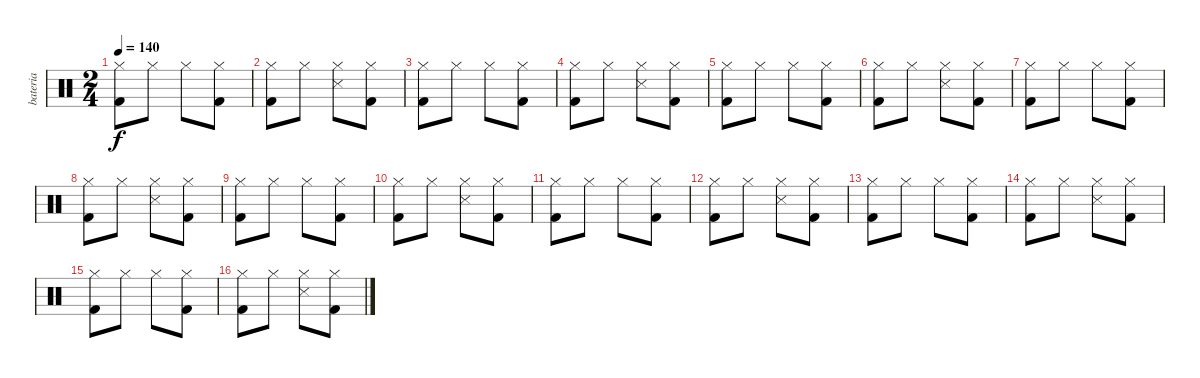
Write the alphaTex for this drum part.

\track ("bateria" "bateria") {instrument percussion}
\staff {score}
\articulation defaults
\ts (2 4)
\tempo 140
\clef neutral
\ks c
("Hi-Hat (closed)" "Kick (hit) 2").8{dy f} "Hi-Hat (closed)".8 "Hi-Hat (closed)".8 ("Hi-Hat (closed)" "Kick (hit) 2").8 |
("Hi-Hat (closed)" "Kick (hit) 2").8 "Hi-Hat (closed)".8 ("Hi-Hat (closed)" "Snare (side stick) 3").8 ("Hi-Hat (closed)" "Kick (hit) 2").8 |
("Hi-Hat (closed)" "Kick (hit) 2").8 "Hi-Hat (closed)".8 "Hi-Hat (closed)".8 ("Hi-Hat (closed)" "Kick (hit) 2").8 |
("Hi-Hat (closed)" "Kick (hit) 2").8 "Hi-Hat (closed)".8 ("Hi-Hat (closed)" "Snare (side stick) 3").8 ("Hi-Hat (closed)" "Kick (hit) 2").8 |
("Hi-Hat (closed)" "Kick (hit) 2").8 "Hi-Hat (closed)".8 "Hi-Hat (closed)".8 ("Hi-Hat (closed)" "Kick (hit) 2").8 |
("Hi-Hat (closed)" "Kick (hit) 2").8 "Hi-Hat (closed)".8 ("Hi-Hat (closed)" "Snare (side stick) 3").8 ("Hi-Hat (closed)" "Kick (hit) 2").8 |
("Hi-Hat (closed)" "Kick (hit) 2").8 "Hi-Hat (closed)".8 "Hi-Hat (closed)".8 ("Hi-Hat (closed)" "Kick (hit) 2").8 |
("Hi-Hat (closed)" "Kick (hit) 2").8 "Hi-Hat (closed)".8 ("Hi-Hat (closed)" "Snare (side stick) 3").8 ("Hi-Hat (closed)" "Kick (hit) 2").8 |
("Hi-Hat (closed)" "Kick (hit) 2").8 "Hi-Hat (closed)".8 "Hi-Hat (closed)".8 ("Hi-Hat (closed)" "Kick (hit) 2").8 |
("Hi-Hat (closed)" "Kick (hit) 2").8 "Hi-Hat (closed)".8 ("Hi-Hat (closed)" "Snare (side stick) 3").8 ("Hi-Hat (closed)" "Kick (hit) 2").8 |
("Hi-Hat (closed)" "Kick (hit) 2").8 "Hi-Hat (closed)".8 "Hi-Hat (closed)".8 ("Hi-Hat (closed)" "Kick (hit) 2").8 |
("Hi-Hat (closed)" "Kick (hit) 2").8 "Hi-Hat (closed)".8 ("Hi-Hat (closed)" "Snare (side stick) 3").8 ("Hi-Hat (closed)" "Kick (hit) 2").8 |
("Hi-Hat (closed)" "Kick (hit) 2").8 "Hi-Hat (closed)".8 "Hi-Hat (closed)".8 ("Hi-Hat (closed)" "Kick (hit) 2").8 |
("Hi-Hat (closed)" "Kick (hit) 2").8 "Hi-Hat (closed)".8 ("Hi-Hat (closed)" "Snare (side stick) 3").8 ("Hi-Hat (closed)" "Kick (hit) 2").8 |
("Hi-Hat (closed)" "Kick (hit) 2").8 "Hi-Hat (closed)".8 "Hi-Hat (closed)".8 ("Hi-Hat (closed)" "Kick (hit) 2").8 |
("Hi-Hat (closed)" "Kick (hit) 2").8 "Hi-Hat (closed)".8 ("Hi-Hat (closed)" "Snare (side stick) 3").8 ("Hi-Hat (closed)" "Kick (hit) 2").8
